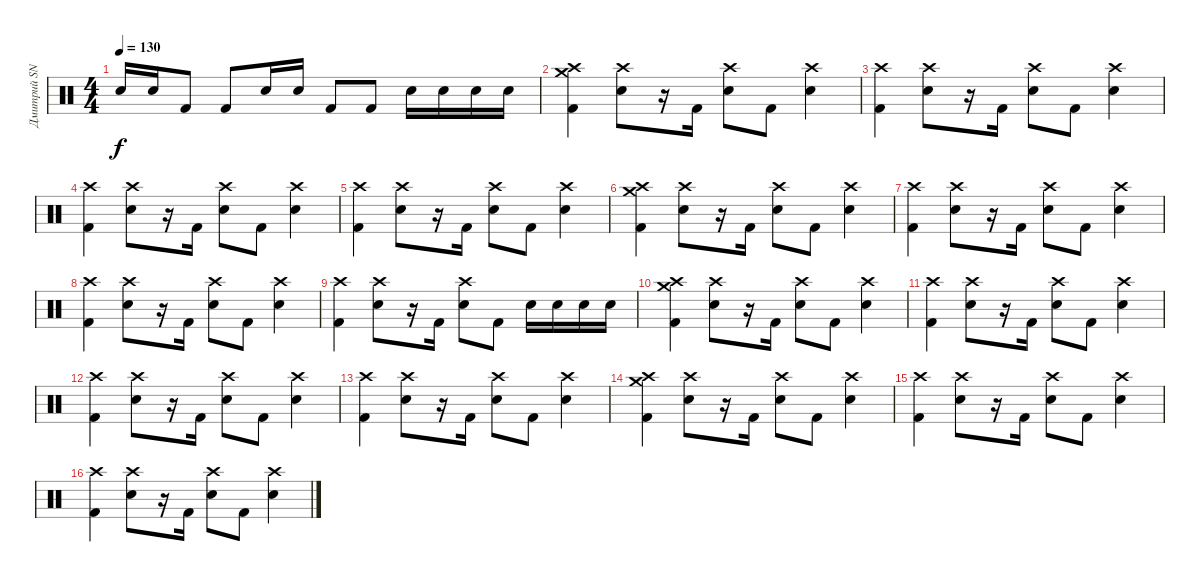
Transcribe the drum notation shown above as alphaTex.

\track ("Дмитрий SNAKE Хакимов" "Дмитрий SN") {instrument percussion}
\staff {score}
\articulation defaults
\ts (4 4)
\tempo 130
\clef neutral
\ks c "Snare (hit) 2".16{dy f} "Snare (hit) 2".16 "Kick (hit) 2".8 "Kick (hit) 2".8 "Snare (hit) 2".16 "Snare (hit) 2".16 "Kick (hit) 2".8 "Kick (hit) 2".8 "Snare (hit) 2".16 "Snare (hit) 2".16 "Snare (hit) 2".16 "Snare (hit) 2".16
|
("Crash high (hit)" "Crash medium (hit)" "Kick (hit) 2").4 ("Crash high (hit)" "Snare (hit) 2").8 r.16 "Kick (hit) 2".16 ("Crash high (hit)" "Snare (hit) 2").8 "Kick (hit) 2".8 ("Crash high (hit)" "Snare (hit) 2").4 |
("Crash high (hit)" "Kick (hit) 2").4 ("Crash high (hit)" "Snare (hit) 2").8 r.16 "Kick (hit) 2".16 ("Crash high (hit)" "Snare (hit) 2").8 "Kick (hit) 2".8 ("Crash high (hit)" "Snare (hit) 2").4 |
("Crash high (hit)" "Kick (hit) 2").4 ("Crash high (hit)" "Snare (hit) 2").8 r.16 "Kick (hit) 2".16 ("Crash high (hit)" "Snare (hit) 2").8 "Kick (hit) 2".8 ("Crash high (hit)" "Snare (hit) 2").4 |
("Crash high (hit)" "Kick (hit) 2").4 ("Crash high (hit)" "Snare (hit) 2").8 r.16 "Kick (hit) 2".16 ("Crash high (hit)" "Snare (hit) 2").8 "Kick (hit) 2".8 ("Crash high (hit)" "Snare (hit) 2").4 |
("Crash high (hit)" "Crash medium (hit)" "Kick (hit) 2").4 ("Crash high (hit)" "Snare (hit) 2").8 r.16 "Kick (hit) 2".16 ("Crash high (hit)" "Snare (hit) 2").8 "Kick (hit) 2".8 ("Crash high (hit)" "Snare (hit) 2").4 |
("Crash high (hit)" "Kick (hit) 2").4 ("Crash high (hit)" "Snare (hit) 2").8 r.16 "Kick (hit) 2".16 ("Crash high (hit)" "Snare (hit) 2").8 "Kick (hit) 2".8 ("Crash high (hit)" "Snare (hit) 2").4 |
("Crash high (hit)" "Kick (hit) 2").4 ("Crash high (hit)" "Snare (hit) 2").8 r.16 "Kick (hit) 2".16 ("Crash high (hit)" "Snare (hit) 2").8 "Kick (hit) 2".8 ("Crash high (hit)" "Snare (hit) 2").4 |
("Crash high (hit)" "Kick (hit) 2").4 ("Crash high (hit)" "Snare (hit) 2").8 r.16 "Kick (hit) 2".16 ("Crash high (hit)" "Snare (hit) 2").8 "Kick (hit) 2".8 "Snare (hit) 2".16 "Snare (hit) 2".16 "Snare (hit) 2".16 "Snare (hit) 2".16 |
("Crash high (hit)" "Crash medium (hit)" "Kick (hit) 2").4 ("Crash high (hit)" "Snare (hit) 2").8 r.16 "Kick (hit) 2".16 ("Crash high (hit)" "Snare (hit) 2").8 "Kick (hit) 2".8 ("Crash high (hit)" "Snare (hit) 2").4 |
("Crash high (hit)" "Kick (hit) 2").4 ("Crash high (hit)" "Snare (hit) 2").8 r.16 "Kick (hit) 2".16 ("Crash high (hit)" "Snare (hit) 2").8 "Kick (hit) 2".8 ("Crash high (hit)" "Snare (hit) 2").4 |
("Crash high (hit)" "Kick (hit) 2").4 ("Crash high (hit)" "Snare (hit) 2").8 r.16 "Kick (hit) 2".16 ("Crash high (hit)" "Snare (hit) 2").8 "Kick (hit) 2".8 ("Crash high (hit)" "Snare (hit) 2").4 |
("Crash high (hit)" "Kick (hit) 2").4 ("Crash high (hit)" "Snare (hit) 2").8 r.16 "Kick (hit) 2".16 ("Crash high (hit)" "Snare (hit) 2").8 "Kick (hit) 2".8 ("Crash high (hit)" "Snare (hit) 2").4 |
("Crash high (hit)" "Crash medium (hit)" "Kick (hit) 2").4 ("Crash high (hit)" "Snare (hit) 2").8 r.16 "Kick (hit) 2".16 ("Crash high (hit)" "Snare (hit) 2").8 "Kick (hit) 2".8 ("Crash high (hit)" "Snare (hit) 2").4 |
("Crash high (hit)" "Kick (hit) 2").4 ("Crash high (hit)" "Snare (hit) 2").8 r.16 "Kick (hit) 2".16 ("Crash high (hit)" "Snare (hit) 2").8 "Kick (hit) 2".8 ("Crash high (hit)" "Snare (hit) 2").4 |
("Crash high (hit)" "Kick (hit) 2").4 ("Crash high (hit)" "Snare (hit) 2").8 r.16 "Kick (hit) 2".16 ("Crash high (hit)" "Snare (hit) 2").8 "Kick (hit) 2".8 ("Crash high (hit)" "Snare (hit) 2").4
